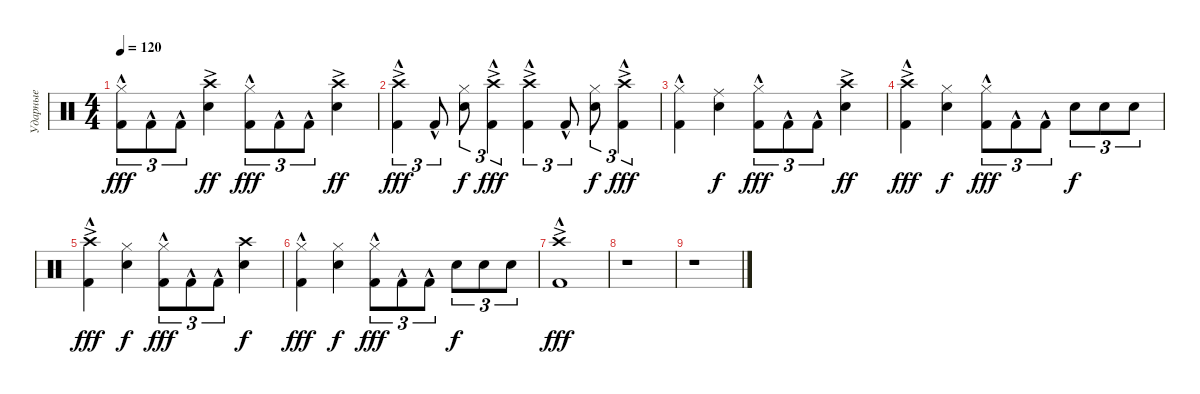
\track ("Ударные" "Ударные") {instrument percussion}
\staff {score}
\articulation defaults
\ts (4 4)
\tempo 120
\clef neutral
\ks c
("Hi-Hat (closed)" "Kick (hit) 2"{hac}).8{tu (3 2) dy fff} "Kick (hit) 2"{hac}.8{tu (3 2)} "Kick (hit) 2"{hac}.8{tu (3 2)} ("Crash high (hit)"{ac} "Snare (hit) 2").4{dy ff} ("Hi-Hat (closed)" "Kick (hit) 2"{hac}).8{tu (3 2) dy fff} "Kick (hit) 2"{hac}.8{tu (3 2)} "Kick (hit) 2"{hac}.8{tu (3 2)} ("Crash high (hit)"{ac} "Snare (hit) 2").4{dy ff} |
("Crash high (hit)"{ac} "Kick (hit) 2"{hac}).4{tu (3 2) dy fff} "Kick (hit) 2"{hac}.8{tu (3 2)} ("Hi-Hat (closed)" "Snare (hit) 2").8{tu (3 2) dy f} ("Crash high (hit)"{ac} "Kick (hit) 2"{hac}).4{tu (3 2) dy fff} ("Crash high (hit)"{ac} "Kick (hit) 2"{hac}).4{tu (3 2)} "Kick (hit) 2"{hac}.8{tu (3 2)} ("Hi-Hat (closed)" "Snare (hit) 2").8{tu (3 2) dy f} ("Crash high (hit)"{ac} "Kick (hit) 2"{hac}).4{tu (3 2) dy fff} |
("Hi-Hat (closed)" "Kick (hit) 2"{hac}).4 ("Ride (middle)" "Snare (hit) 2").4{dy f} ("Hi-Hat (closed)" "Kick (hit) 2"{hac}).8{tu (3 2) dy fff} "Kick (hit) 2"{hac}.8{tu (3 2)} "Kick (hit) 2"{hac}.8{tu (3 2)} ("Crash high (hit)"{ac} "Snare (hit) 2").4{dy ff} |
("Crash high (hit)"{ac} "Kick (hit) 2"{hac}).4{dy fff} ("Hi-Hat (closed)" "Snare (hit) 2").4{dy f} ("Hi-Hat (closed)" "Kick (hit) 2"{hac}).8{tu (3 2) dy fff} "Kick (hit) 2"{hac}.8{tu (3 2)} "Kick (hit) 2"{hac}.8{tu (3 2)} "Snare (hit) 2".8{tu (3 2) dy f} "Snare (hit) 2".8{tu (3 2)} "Snare (hit) 2".8{tu (3 2)} |
("Crash high (hit)"{ac} "Kick (hit) 2"{hac}).4{dy fff} ("Hi-Hat (closed)" "Snare (hit) 2").4{dy f} ("Hi-Hat (closed)" "Kick (hit) 2"{hac}).8{tu (3 2) dy fff} "Kick (hit) 2"{hac}.8{tu (3 2)} "Kick (hit) 2"{hac}.8{tu (3 2)} ("Crash high (hit)" "Snare (hit) 2").4{dy f} |
("Hi-Hat (closed)" "Kick (hit) 2"{hac}).4{dy fff} ("Hi-Hat (closed)" "Snare (hit) 2").4{dy f} ("Hi-Hat (closed)" "Kick (hit) 2"{hac}).8{tu (3 2) dy fff} "Kick (hit) 2"{hac}.8{tu (3 2)} "Kick (hit) 2"{hac}.8{tu (3 2)} "Snare (hit) 2".8{tu (3 2) dy f} "Snare (hit) 2".8{tu (3 2)} "Snare (hit) 2".8{tu (3 2)} |
("Crash high (hit)"{ac} "Kick (hit) 2"{hac}).1{dy fff} |
r.1 |
r.1
